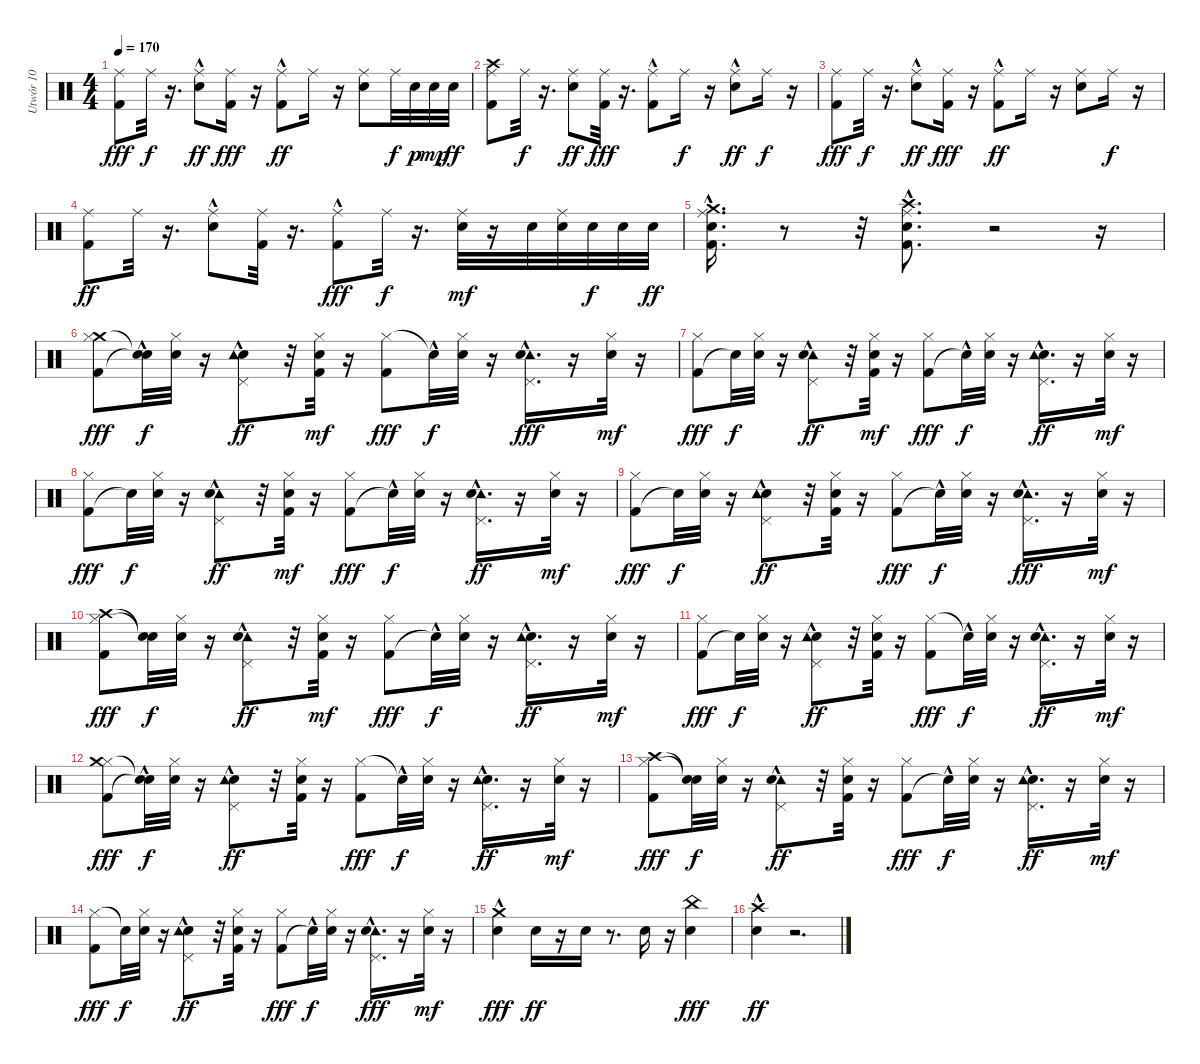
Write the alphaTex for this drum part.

\track ("Utwór 10" "Utwór 10") {instrument percussion}
\staff {score}
\articulation defaults
\ts (4 4)
\tempo 170
\clef neutral
\ks c
("Ride (middle)" "Kick (hit) 2").8{dy fff} "Ride (middle)".32{dy f} r.16{d} ("Snare (hit) 2"{hac} "Ride (middle)").8{dy ff} ("Kick (hit) 2" "Ride (middle)").16{dy fff} r.16 ("Kick (hit) 2"{hac} "Ride (middle)").8{dy ff} "Ride (middle)".16 r.16 ("Snare (hit) 2" "Ride (middle)").8 "Ride (middle)".32{dy f} "Snare (hit) 2".32{dy p} "Snare (hit) 2".32{dy mp} "Snare (hit) 2".32{dy ff} |
("Ride (middle)" "Kick (hit) 2" "Crash high (hit)").8 "Ride (middle)".32{dy f} r.16{d} ("Ride (middle)" "Snare (hit) 2").8{dy ff} ("Ride (middle)" "Kick (hit) 2").32{dy fff} r.16{d} ("Ride (middle)" "Kick (hit) 2"{hac}).8 "Ride (middle)".16{dy f} r.16 ("Snare (hit) 2"{hac} "Ride (middle)").8{dy ff} "Ride (middle)".16{dy f} r.16 |
("Ride (middle)" "Kick (hit) 2").8{dy fff} "Ride (middle)".32{dy f} r.16{d} ("Snare (hit) 2"{hac} "Ride (middle)").8{dy ff} ("Kick (hit) 2" "Ride (middle)").16{dy fff} r.16 ("Kick (hit) 2"{hac} "Ride (middle)").8{dy ff} "Ride (middle)".16 r.16 ("Snare (hit) 2" "Ride (middle)").8 "Ride (middle)".16{dy f} r.16 |
("Kick (hit) 2" "Ride (middle)").8{dy ff} "Ride (middle)".32 r.16{d} ("Ride (middle)" "Snare (hit) 2"{hac}).8 ("Kick (hit) 2" "Ride (middle)").32 r.16{d} ("Ride (middle)" "Kick (hit) 2"{hac}).8{dy fff} "Ride (middle)".32{dy f} r.16{d} ("Ride (middle)" "Snare (hit) 2").32{dy mf} r.16 "Snare (hit) 2".32 ("Snare (hit) 2" "Ride (middle)").32 "Snare (hit) 2".32{dy f} "Snare (hit) 2".32 "Snare (hit) 2".32{dy ff} |
("Kick (hit) 2"{hac} "Snare (hit) 2" "Ride (middle)" "Crash medium (hit)"{hac}).16{d} r.8 r.32 ("Ride (middle)" "Snare (hit) 2" "Kick (hit) 2"{hac} "Crash high (hit)"{hac}).8{d} r.2 r.16 |
("Kick (hit) 2" "Crash medium (hit)" "Hi-Hat (closed)").8{dy fff} ("Snare (hit)"{t} "Snare (hit)"{hac t}).32{dy f} ("Hi-Hat (closed)" "Snare (hit) 2").32 r.16 ("Snare (hit) 2"{hac} "Tambourine (hit)" "Pedal Hi-Hat (hit)").8{dy ff} r.32 ("Kick (hit) 2" "Snare (hit) 2" "Hi-Hat (closed)").32{dy mf} r.16 ("Hi-Hat (closed)" "Kick (hit) 2").8{dy fff} "Snare (hit)"{hac t}.32{dy f} ("Snare (hit) 2" "Hi-Hat (closed)").32 r.16 ("Pedal Hi-Hat (hit)"{hac} "Tambourine (hit)"{hac} "Snare (hit) 2").16{d dy fff} r.16 ("Snare (hit) 2" "Hi-Hat (closed)").32{dy mf} r.16 |
("Kick (hit) 2" "Hi-Hat (closed)").8{dy fff} "Snare (hit)"{t}.32{dy f} ("Snare (hit) 2" "Hi-Hat (closed)").32 r.16 ("Pedal Hi-Hat (hit)" "Tambourine (hit)" "Snare (hit) 2"{hac}).8{dy ff} r.32 ("Kick (hit) 2" "Snare (hit) 2" "Hi-Hat (closed)").32{dy mf} r.16 ("Kick (hit) 2" "Hi-Hat (closed)").8{dy fff} "Snare (hit)"{hac t}.32{dy f} ("Hi-Hat (closed)" "Snare (hit) 2").32 r.16 ("Snare (hit) 2" "Pedal Hi-Hat (hit)"{hac} "Tambourine (hit)"{hac}).16{d dy ff} r.16 ("Hi-Hat (closed)" "Snare (hit) 2").32{dy mf} r.16 |
("Kick (hit) 2" "Hi-Hat (closed)").8{dy fff} "Snare (hit)"{t}.32{dy f} ("Hi-Hat (closed)" "Snare (hit) 2").32 r.16 ("Pedal Hi-Hat (hit)" "Tambourine (hit)" "Snare (hit) 2"{hac}).8{dy ff} r.32 ("Kick (hit) 2" "Hi-Hat (closed)" "Snare (hit) 2").32{dy mf} r.16 ("Kick (hit) 2" "Hi-Hat (closed)").8{dy fff} "Snare (hit)"{hac t}.32{dy f} ("Snare (hit) 2" "Hi-Hat (closed)").32 r.16 ("Tambourine (hit)"{hac} "Snare (hit) 2" "Pedal Hi-Hat (hit)"{hac}).16{d dy ff} r.16 ("Snare (hit) 2" "Hi-Hat (closed)").32{dy mf} r.16 |
("Kick (hit) 2" "Hi-Hat (closed)").8{dy fff} "Snare (hit)"{t}.32{dy f} ("Hi-Hat (closed)" "Snare (hit) 2").32 r.16 ("Pedal Hi-Hat (hit)" "Snare (hit) 2"{hac} "Tambourine (hit)").8{dy ff} r.32 ("Snare (hit) 2" "Hi-Hat (closed)" "Kick (hit) 2").32 r.16 ("Kick (hit) 2" "Hi-Hat (closed)").8{dy fff} "Snare (hit)"{hac t}.32{dy f} ("Hi-Hat (closed)" "Snare (hit) 2").32 r.16 ("Pedal Hi-Hat (hit)"{hac} "Tambourine (hit)"{hac} "Snare (hit) 2").16{d dy fff} r.16 ("Snare (hit) 2" "Hi-Hat (closed)").32{dy mf} r.16 |
("Crash high (hit)" "Hi-Hat (closed)" "Kick (hit) 2").8{dy fff} ("Snare (hit)"{t} "Snare (hit)"{t}).32{dy f} ("Hi-Hat (closed)" "Snare (hit) 2").32 r.16 ("Tambourine (hit)" "Snare (hit) 2"{hac} "Pedal Hi-Hat (hit)").8{dy ff} r.32 ("Hi-Hat (closed)" "Kick (hit) 2" "Snare (hit) 2").32{dy mf} r.16 ("Kick (hit) 2" "Hi-Hat (closed)").8{dy fff} "Snare (hit)"{hac t}.32{dy f} ("Snare (hit) 2" "Hi-Hat (closed)").32 r.16 ("Pedal Hi-Hat (hit)"{hac} "Snare (hit) 2" "Tambourine (hit)"{hac}).16{d dy ff} r.16 ("Hi-Hat (closed)" "Snare (hit) 2").32{dy mf} r.16 |
("Kick (hit) 2" "Hi-Hat (closed)").8{dy fff} "Snare (hit)"{t}.32{dy f} ("Hi-Hat (closed)" "Snare (hit) 2").32 r.16 ("Snare (hit) 2"{hac} "Tambourine (hit)" "Pedal Hi-Hat (hit)").8{dy ff} r.32 ("Snare (hit) 2" "Hi-Hat (closed)" "Kick (hit) 2").32 r.16 ("Hi-Hat (closed)" "Kick (hit) 2").8{dy fff} "Snare (hit)"{hac t}.32{dy f} ("Snare (hit) 2" "Hi-Hat (closed)").32 r.16 ("Tambourine (hit)"{hac} "Snare (hit) 2" "Pedal Hi-Hat (hit)"{hac}).16{d dy ff} r.16 ("Snare (hit) 2" "Hi-Hat (closed)").32{dy mf} r.16 |
("Hi-Hat (closed)" "Kick (hit) 2" "Crash medium (hit)").8{dy fff} ("Snare (hit)"{t} "Snare (hit)"{hac t}).32{dy f} ("Snare (hit) 2" "Hi-Hat (closed)").32 r.16 ("Snare (hit) 2"{hac} "Tambourine (hit)" "Pedal Hi-Hat (hit)").8{dy ff} r.32 ("Snare (hit) 2" "Hi-Hat (closed)" "Kick (hit) 2").32 r.16 ("Hi-Hat (closed)" "Kick (hit) 2").8{dy fff} "Snare (hit)"{hac t}.32{dy f} ("Snare (hit) 2" "Hi-Hat (closed)").32 r.16 ("Pedal Hi-Hat (hit)"{hac} "Snare (hit) 2" "Tambourine (hit)"{hac}).16{d dy ff} r.16 ("Hi-Hat (closed)" "Snare (hit) 2").32{dy mf} r.16 |
("Hi-Hat (closed)" "Crash high (hit)" "Kick (hit) 2").8{dy fff} ("Snare (hit)"{t} "Snare (hit)"{t}).32{dy f} ("Snare (hit) 2" "Hi-Hat (closed)").32 r.16 ("Tambourine (hit)" "Snare (hit) 2"{hac} "Pedal Hi-Hat (hit)").8{dy ff} r.32 ("Hi-Hat (closed)" "Snare (hit) 2" "Kick (hit) 2").32 r.16 ("Kick (hit) 2" "Hi-Hat (closed)").8{dy fff} "Snare (hit)"{hac t}.32{dy f} ("Snare (hit) 2" "Hi-Hat (closed)").32 r.16 ("Pedal Hi-Hat (hit)"{hac} "Snare (hit) 2" "Tambourine (hit)"{hac}).16{d dy ff} r.16 ("Snare (hit) 2" "Hi-Hat (closed)").32{dy mf} r.16 |
("Hi-Hat (closed)" "Kick (hit) 2").8{dy fff} "Snare (hit)"{t}.32{dy f} ("Hi-Hat (closed)" "Snare (hit) 2").32 r.16 ("Snare (hit) 2"{hac} "Tambourine (hit)" "Pedal Hi-Hat (hit)").8{dy ff} r.32 ("Snare (hit) 2" "Hi-Hat (closed)" "Kick (hit) 2").32 r.16 ("Kick (hit) 2" "Hi-Hat (closed)").8{dy fff} "Snare (hit)"{hac t}.32{dy f} ("Hi-Hat (closed)" "Snare (hit) 2").32 r.16 ("Pedal Hi-Hat (hit)"{hac} "Tambourine (hit)"{hac} "Snare (hit) 2").16{d dy fff} r.16 ("Hi-Hat (closed)" "Snare (hit) 2").32{dy mf} r.16 |
("Snare (hit) 2"{hac} "Crash medium (hit)").4{dy fff} "Snare (hit) 2".16{dy ff} r.16 "Snare (hit) 2".16 r.8{d} "Snare (hit) 2".16 r.16 ("Snare (hit) 2" "China (hit)").4{dy fff} |
("Crash high (hit)" "Snare (hit) 2"{hac}).4{dy ff} r.2{d}
